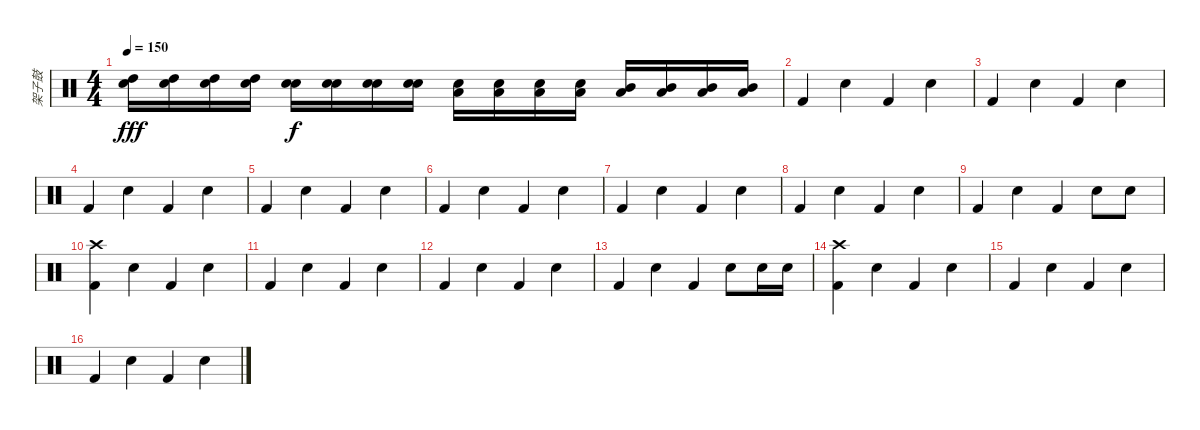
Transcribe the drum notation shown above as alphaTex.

\track ("架子鼓" "架子鼓") {instrument percussion}
\staff {score}
\articulation defaults
\ts (4 4)
\tempo 150
\clef neutral
\ks c
("High Tom (hit)" "Snare (hit) 2").16{dy fff} ("High Tom (hit)" "Snare (hit) 2").16 ("High Tom (hit)" "Snare (hit) 2").16 ("High Tom (hit)" "Snare (hit) 2").16 ("Snare (hit) 2" "Electric Snare (hit)").16{dy f} ("Snare (hit) 2" "Electric Snare (hit)").16 ("Snare (hit) 2" "Electric Snare (hit)").16 ("Snare (hit) 2" "Electric Snare (hit)").16 ("Snare (hit) 2" "Low Tom (hit)").16 ("Snare (hit) 2" "Low Tom (hit)").16 ("Snare (hit) 2" "Low Tom (hit)").16 ("Snare (hit) 2" "Low Tom (hit)").16 ("Mid Tom (hit)" "Low Tom (hit)").16 ("Mid Tom (hit)" "Low Tom (hit)").16 ("Mid Tom (hit)" "Low Tom (hit)").16 ("Mid Tom (hit)" "Low Tom (hit)").16 |
"Kick (hit) 2".4 "Snare (hit) 2".4 "Kick (hit) 2".4 "Snare (hit) 2".4 |
"Kick (hit) 2".4 "Snare (hit) 2".4 "Kick (hit) 2".4 "Snare (hit) 2".4 |
"Kick (hit) 2".4 "Snare (hit) 2".4 "Kick (hit) 2".4 "Snare (hit) 2".4 |
"Kick (hit) 2".4 "Snare (hit) 2".4 "Kick (hit) 2".4 "Snare (hit) 2".4 |
"Kick (hit) 2".4 "Snare (hit) 2".4 "Kick (hit) 2".4 "Snare (hit) 2".4 |
"Kick (hit) 2".4 "Snare (hit) 2".4 "Kick (hit) 2".4 "Snare (hit) 2".4 |
"Kick (hit) 2".4 "Snare (hit) 2".4 "Kick (hit) 2".4 "Snare (hit) 2".4 |
"Kick (hit) 2".4 "Snare (hit) 2".4 "Kick (hit) 2".4 "Snare (hit) 2".8 "Snare (hit) 2".8 |
("Crash high (hit)" "Kick (hit) 2").4 "Snare (hit) 2".4 "Kick (hit) 2".4 "Snare (hit) 2".4 |
"Kick (hit) 2".4 "Snare (hit) 2".4 "Kick (hit) 2".4 "Snare (hit) 2".4 |
"Kick (hit) 2".4 "Snare (hit) 2".4 "Kick (hit) 2".4 "Snare (hit) 2".4 |
"Kick (hit) 2".4 "Snare (hit) 2".4 "Kick (hit) 2".4 "Snare (hit) 2".8 "Snare (hit) 2".16 "Snare (hit) 2".16 |
("Crash high (hit)" "Kick (hit) 2").4 "Snare (hit) 2".4 "Kick (hit) 2".4 "Snare (hit) 2".4 |
"Kick (hit) 2".4 "Snare (hit) 2".4 "Kick (hit) 2".4 "Snare (hit) 2".4 |
"Kick (hit) 2".4 "Snare (hit) 2".4 "Kick (hit) 2".4 "Snare (hit) 2".4
